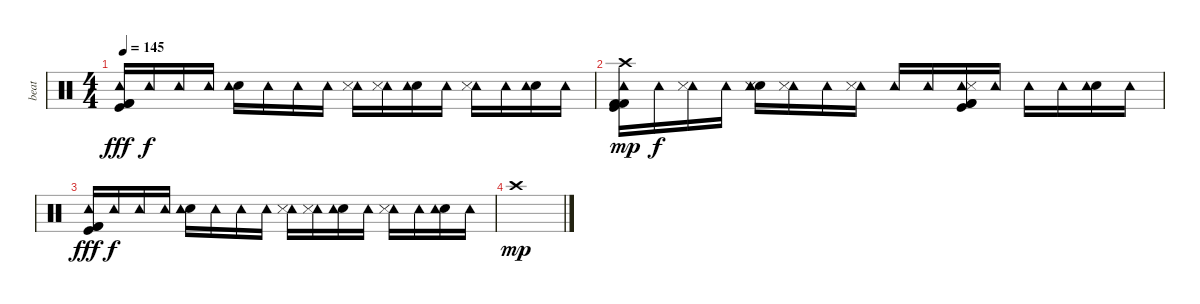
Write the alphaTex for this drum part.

\track ("beat" "beat") {instrument percussion}
\staff {score}
\articulation defaults
\ts (4 4)
\tempo 145
\clef neutral
\ks c
("Kick (hit)" "Kick (hit) 2" "Kick (hit) 2" "Tambourine (hit)").16{dy fff} "Tambourine (hit)".16{dy f} "Tambourine (hit)".16 "Tambourine (hit)".16 ("Electric Snare (hit)" "Tambourine (hit)").16 "Tambourine (hit)".16 "Tambourine (hit)".16 "Tambourine (hit)".16 ("Tambourine (hit)" "Snare (side stick) 3").16 ("Tambourine (hit)" "Snare (side stick) 3").16 ("Electric Snare (hit)" "Tambourine (hit)").16 "Tambourine (hit)".16 ("Tambourine (hit)" "Snare (side stick) 3").16 "Tambourine (hit)".16 ("Electric Snare (hit)" "Tambourine (hit)").16 "Tambourine (hit)".16 |
("Kick (hit)" "Kick (hit) 2" "Kick (hit) 2" "Tambourine (hit)" "Crash high (hit)").16{dy mp} "Tambourine (hit)".16{dy f} ("Tambourine (hit)" "Snare (side stick) 3").16 "Tambourine (hit)".16 ("Electric Snare (hit)" "Tambourine (hit)" "Snare (side stick) 3").16 ("Tambourine (hit)" "Snare (side stick) 3").16 "Tambourine (hit)".16 ("Tambourine (hit)" "Snare (side stick) 3").16 "Tambourine (hit)".16 "Tambourine (hit)".16 ("Kick (hit)" "Kick (hit) 2" "Kick (hit) 2" "Tambourine (hit)" "Snare (side stick) 3").16 "Tambourine (hit)".16 "Tambourine (hit)".16 "Tambourine (hit)".16 ("Electric Snare (hit)" "Tambourine (hit)").16 "Tambourine (hit)".16 |
("Kick (hit)" "Kick (hit) 2" "Kick (hit) 2" "Tambourine (hit)").16{dy fff} "Tambourine (hit)".16{dy f} "Tambourine (hit)".16 "Tambourine (hit)".16 ("Electric Snare (hit)" "Tambourine (hit)").16 "Tambourine (hit)".16 "Tambourine (hit)".16 "Tambourine (hit)".16 ("Tambourine (hit)" "Snare (side stick) 3").16 ("Tambourine (hit)" "Snare (side stick) 3").16 ("Electric Snare (hit)" "Tambourine (hit)").16 "Tambourine (hit)".16 ("Tambourine (hit)" "Snare (side stick) 3").16 "Tambourine (hit)".16 ("Electric Snare (hit)" "Tambourine (hit)").16 "Tambourine (hit)".16 |
"Crash high (hit)".1{dy mp}
